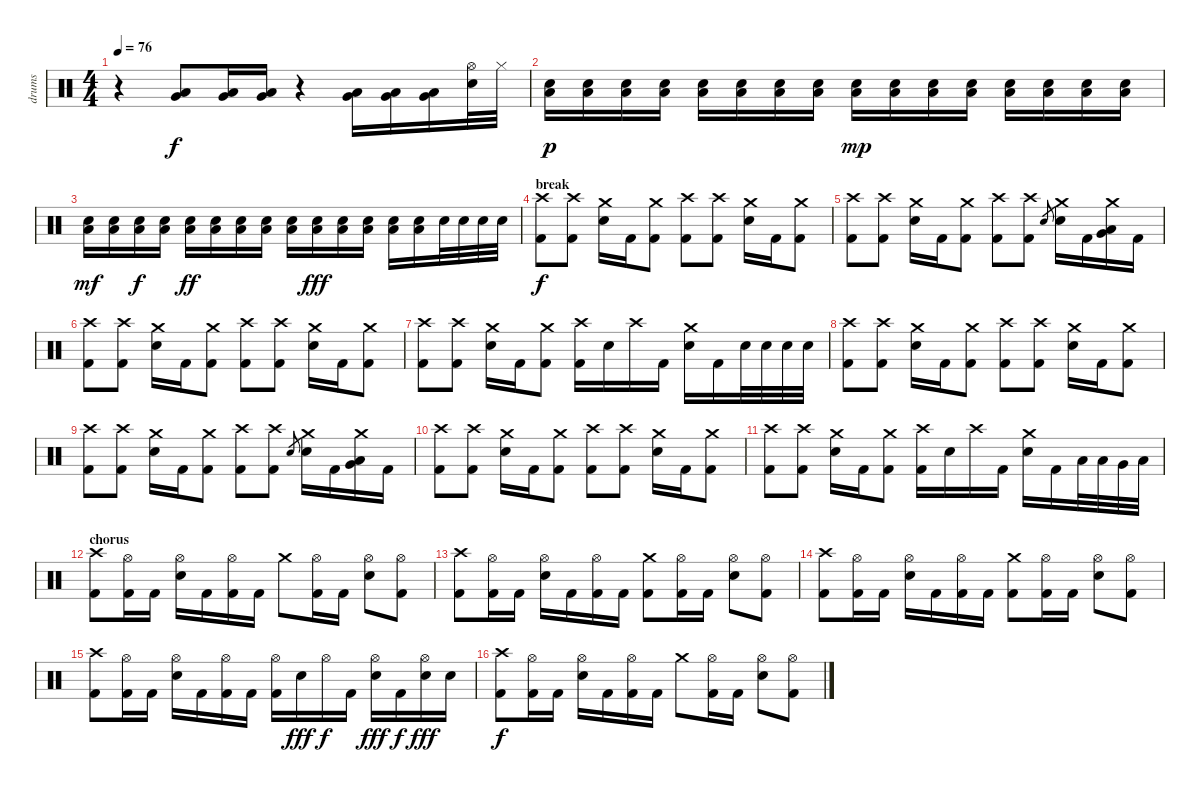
\track ("drums" "drums") {instrument percussion}
\staff {score}
\articulation defaults
\ts (4 4)
\tempo 76
\clef neutral
\ks c
r.4{dy f} ("Low Floor Tom (hit)" "Very Low Tom (hit)").8 ("Low Floor Tom (hit)" "Very Low Tom (hit)").16 ("Low Floor Tom (hit)" "Very Low Tom (hit)").16 r.4 ("Low Floor Tom (hit)" "Very Low Tom (hit)").16 ("Low Floor Tom (hit)" "Very Low Tom (hit)").16 ("Low Floor Tom (hit)" "Very Low Tom (hit)").16 ("Hi-Hat (open)" "Electric Snare (hit)").32 "Hi-Hat (closed)".32 |
("Low Floor Tom (hit)" "Electric Snare (hit)").16{dy p} ("Low Floor Tom (hit)" "Electric Snare (hit)").16 ("Low Floor Tom (hit)" "Electric Snare (hit)").16 ("Low Floor Tom (hit)" "Electric Snare (hit)").16 ("Low Floor Tom (hit)" "Electric Snare (hit)").16 ("Low Floor Tom (hit)" "Electric Snare (hit)").16 ("Low Floor Tom (hit)" "Electric Snare (hit)").16 ("Low Floor Tom (hit)" "Electric Snare (hit)").16 ("Low Floor Tom (hit)" "Electric Snare (hit)").16{dy mp} ("Low Floor Tom (hit)" "Electric Snare (hit)").16 ("Low Floor Tom (hit)" "Electric Snare (hit)").16 ("Low Floor Tom (hit)" "Electric Snare (hit)").16 ("Low Floor Tom (hit)" "Electric Snare (hit)").16 ("Low Floor Tom (hit)" "Electric Snare (hit)").16 ("Low Floor Tom (hit)" "Electric Snare (hit)").16 ("Low Floor Tom (hit)" "Electric Snare (hit)").16 |
("Low Floor Tom (hit)" "Electric Snare (hit)").16{dy mf} ("Low Floor Tom (hit)" "Electric Snare (hit)").16 ("Low Floor Tom (hit)" "Electric Snare (hit)").16{dy f} ("Low Floor Tom (hit)" "Electric Snare (hit)").16 ("Low Floor Tom (hit)" "Electric Snare (hit)").16{dy ff} ("Low Floor Tom (hit)" "Electric Snare (hit)").16 ("Low Floor Tom (hit)" "Electric Snare (hit)").16 ("Low Floor Tom (hit)" "Electric Snare (hit)").16 ("Low Floor Tom (hit)" "Electric Snare (hit)").16 ("Low Floor Tom (hit)" "Electric Snare (hit)").16{dy fff} ("Low Floor Tom (hit)" "Electric Snare (hit)").16 ("Low Floor Tom (hit)" "Electric Snare (hit)").16 ("Low Floor Tom (hit)" "Electric Snare (hit)").16 ("Low Floor Tom (hit)" "Electric Snare (hit)").16 "Electric Snare (hit)".32 "Electric Snare (hit)".32 "Electric Snare (hit)".32 "Electric Snare (hit)".32 |
\section ("" "break")
("Crash high (hit)" "Kick (hit) 2").8{dy f} ("Crash high (hit)" "Kick (hit) 2").8 ("Crash medium (hit)" "Electric Snare (hit)").16 "Kick (hit) 2".16 ("Crash medium (hit)" "Kick (hit) 2").8 ("Crash high (hit)" "Kick (hit) 2").8 ("Crash high (hit)" "Kick (hit) 2").8 ("Crash medium (hit)" "Electric Snare (hit)").16 "Kick (hit) 2".16 ("Crash medium (hit)" "Kick (hit) 2").8 |
("Crash high (hit)" "Kick (hit) 2").8 ("Crash high (hit)" "Kick (hit) 2").8 ("Crash medium (hit)" "Electric Snare (hit)").16 "Kick (hit) 2".16 ("Crash medium (hit)" "Kick (hit) 2").8 ("Crash high (hit)" "Kick (hit) 2").8 ("Crash high (hit)" "Kick (hit) 2").8 "Electric Snare (hit)".8{gr} ("Crash medium (hit)" "Electric Snare (hit)").16 "Kick (hit) 2".16 ("Crash medium (hit)" "Low Tom (hit)" "Very Low Tom (hit)").16 "Kick (hit) 2".16 |
("Crash high (hit)" "Kick (hit) 2").8 ("Crash high (hit)" "Kick (hit) 2").8 ("Crash medium (hit)" "Electric Snare (hit)").16 "Kick (hit) 2".16 ("Crash medium (hit)" "Kick (hit) 2").8 ("Crash high (hit)" "Kick (hit) 2").8 ("Crash high (hit)" "Kick (hit) 2").8 ("Crash medium (hit)" "Electric Snare (hit)").16 "Kick (hit) 2".16 ("Crash medium (hit)" "Kick (hit) 2").8 |
("Crash high (hit)" "Kick (hit) 2").8 ("Crash high (hit)" "Kick (hit) 2").8 ("Crash medium (hit)" "Electric Snare (hit)").16 "Kick (hit) 2".16 ("Crash medium (hit)" "Kick (hit) 2").8 ("Crash high (hit)" "Kick (hit) 2").16 "Electric Snare (hit)".16 "Crash high (hit)".16 "Kick (hit) 2".16 ("Crash medium (hit)" "Electric Snare (hit)").16 "Kick (hit) 2".16 "Electric Snare (hit)".32 "Electric Snare (hit)".32 "Electric Snare (hit)".32 "Electric Snare (hit)".32 |
("Crash high (hit)" "Kick (hit) 2").8 ("Crash high (hit)" "Kick (hit) 2").8 ("Crash medium (hit)" "Electric Snare (hit)").16 "Kick (hit) 2".16 ("Crash medium (hit)" "Kick (hit) 2").8 ("Crash high (hit)" "Kick (hit) 2").8 ("Crash high (hit)" "Kick (hit) 2").8 ("Crash medium (hit)" "Electric Snare (hit)").16 "Kick (hit) 2".16 ("Crash medium (hit)" "Kick (hit) 2").8 |
("Crash high (hit)" "Kick (hit) 2").8 ("Crash high (hit)" "Kick (hit) 2").8 ("Crash medium (hit)" "Electric Snare (hit)").16 "Kick (hit) 2".16 ("Crash medium (hit)" "Kick (hit) 2").8 ("Crash high (hit)" "Kick (hit) 2").8 ("Crash high (hit)" "Kick (hit) 2").8 "Electric Snare (hit)".8{gr} ("Crash medium (hit)" "Electric Snare (hit)").16 "Kick (hit) 2".16 ("Crash medium (hit)" "Low Tom (hit)" "Very Low Tom (hit)").16 "Kick (hit) 2".16 |
("Crash high (hit)" "Kick (hit) 2").8 ("Crash high (hit)" "Kick (hit) 2").8 ("Crash medium (hit)" "Electric Snare (hit)").16 "Kick (hit) 2".16 ("Crash medium (hit)" "Kick (hit) 2").8 ("Crash high (hit)" "Kick (hit) 2").8 ("Crash high (hit)" "Kick (hit) 2").8 ("Crash medium (hit)" "Electric Snare (hit)").16 "Kick (hit) 2".16 ("Crash medium (hit)" "Kick (hit) 2").8 |
("Crash high (hit)" "Kick (hit) 2").8 ("Crash high (hit)" "Kick (hit) 2").8 ("Crash medium (hit)" "Electric Snare (hit)").16 "Kick (hit) 2".16 ("Crash medium (hit)" "Kick (hit) 2").8 ("Crash high (hit)" "Kick (hit) 2").16 "Electric Snare (hit)".16 "Crash high (hit)".16 "Kick (hit) 2".16 ("Crash medium (hit)" "Electric Snare (hit)").16 "Kick (hit) 2".16 "Low Tom (hit)".32 "Low Tom (hit)".32 "Very Low Tom (hit)".32 "Low Floor Tom (hit)".32 |
\section ("" "chorus")
("Crash high (hit)" "Kick (hit) 2").8 ("Hi-Hat (open)" "Kick (hit) 2").16 "Kick (hit) 2".16 ("Hi-Hat (open)" "Electric Snare (hit)").16 "Kick (hit) 2".16 ("Hi-Hat (open)" "Kick (hit) 2").16 "Kick (hit) 2".16 "Crash medium (hit)".8 ("Hi-Hat (open)" "Kick (hit) 2").16 "Kick (hit) 2".16 ("Hi-Hat (open)" "Electric Snare (hit)").8 ("Hi-Hat (open)" "Kick (hit) 2").8 |
("Crash high (hit)" "Kick (hit) 2").8 ("Hi-Hat (open)" "Kick (hit) 2").16 "Kick (hit) 2".16 ("Hi-Hat (open)" "Electric Snare (hit)").16 "Kick (hit) 2".16 ("Hi-Hat (open)" "Kick (hit) 2").16 "Kick (hit) 2".16 ("Crash medium (hit)" "Kick (hit) 2").8 ("Hi-Hat (open)" "Kick (hit) 2").16 "Kick (hit) 2".16 ("Hi-Hat (open)" "Electric Snare (hit)").8 ("Hi-Hat (open)" "Kick (hit) 2").8 |
("Crash high (hit)" "Kick (hit) 2").8 ("Hi-Hat (open)" "Kick (hit) 2").16 "Kick (hit) 2".16 ("Hi-Hat (open)" "Electric Snare (hit)").16 "Kick (hit) 2".16 ("Hi-Hat (open)" "Kick (hit) 2").16 "Kick (hit) 2".16 ("Crash medium (hit)" "Kick (hit) 2").8 ("Hi-Hat (open)" "Kick (hit) 2").16 "Kick (hit) 2".16 ("Hi-Hat (open)" "Electric Snare (hit)").8 ("Hi-Hat (open)" "Kick (hit) 2").8 |
("Crash high (hit)" "Kick (hit) 2").8 ("Hi-Hat (open)" "Kick (hit) 2").16 "Kick (hit) 2".16 ("Hi-Hat (open)" "Electric Snare (hit)").16 "Kick (hit) 2".16 ("Hi-Hat (open)" "Kick (hit) 2").16 "Kick (hit) 2".16 ("Hi-Hat (open)" "Kick (hit) 2").16 "Electric Snare (hit)".16{dy fff} "Hi-Hat (open)".16{dy f} "Kick (hit) 2".16 ("Hi-Hat (open)" "Electric Snare (hit)").16{dy fff} "Kick (hit) 2".16{dy f} ("Hi-Hat (open)" "Electric Snare (hit)").16{dy fff} "Electric Snare (hit)".16 |
("Crash high (hit)" "Kick (hit) 2").8{dy f} ("Hi-Hat (open)" "Kick (hit) 2").16 "Kick (hit) 2".16 ("Hi-Hat (open)" "Electric Snare (hit)").16 "Kick (hit) 2".16 ("Hi-Hat (open)" "Kick (hit) 2").16 "Kick (hit) 2".16 "Crash medium (hit)".8 ("Hi-Hat (open)" "Kick (hit) 2").16 "Kick (hit) 2".16 ("Hi-Hat (open)" "Electric Snare (hit)").8 ("Hi-Hat (open)" "Kick (hit) 2").8
